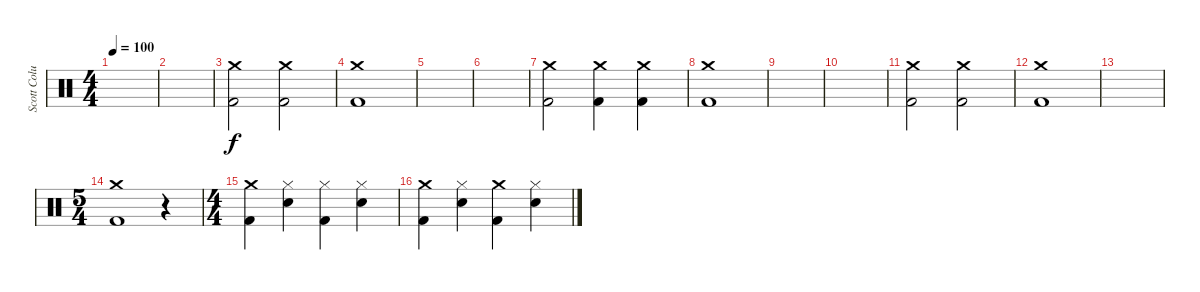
\track ("Scott Columbus" "Scott Colu") {instrument percussion}
\staff {score}
\articulation defaults
\ts (4 4)
\tempo 100
\clef neutral
\ks c
|
|
("Crash medium (hit)" "Kick (hit) 2").2 ("Crash medium (hit)" "Kick (hit) 2").2 |
("Crash medium (hit)" "Kick (hit) 2").1 |
|
|
("Crash medium (hit)" "Kick (hit) 2").2 ("Crash medium (hit)" "Kick (hit) 2").4 ("Crash medium (hit)" "Kick (hit) 2").4 |
("Crash medium (hit)" "Kick (hit) 2").1 |
|
|
("Crash medium (hit)" "Kick (hit) 2").2 ("Crash medium (hit)" "Kick (hit) 2").2 |
("Crash medium (hit)" "Kick (hit) 2").1 |
|
\ts (5 4)
("Crash medium (hit)" "Kick (hit) 2").1 r.4 |
\ts (4 4)
("Crash medium (hit)" "Kick (hit) 2").4 ("Hi-Hat (closed)" "Snare (hit) 2").4 ("Hi-Hat (closed)" "Kick (hit) 2").4 ("Hi-Hat (closed)" "Snare (hit) 2").4 |
("Crash medium (hit)" "Kick (hit) 2").4 ("Hi-Hat (closed)" "Snare (hit) 2").4 ("Crash medium (hit)" "Kick (hit) 2").4 ("Hi-Hat (closed)" "Snare (hit) 2").4
